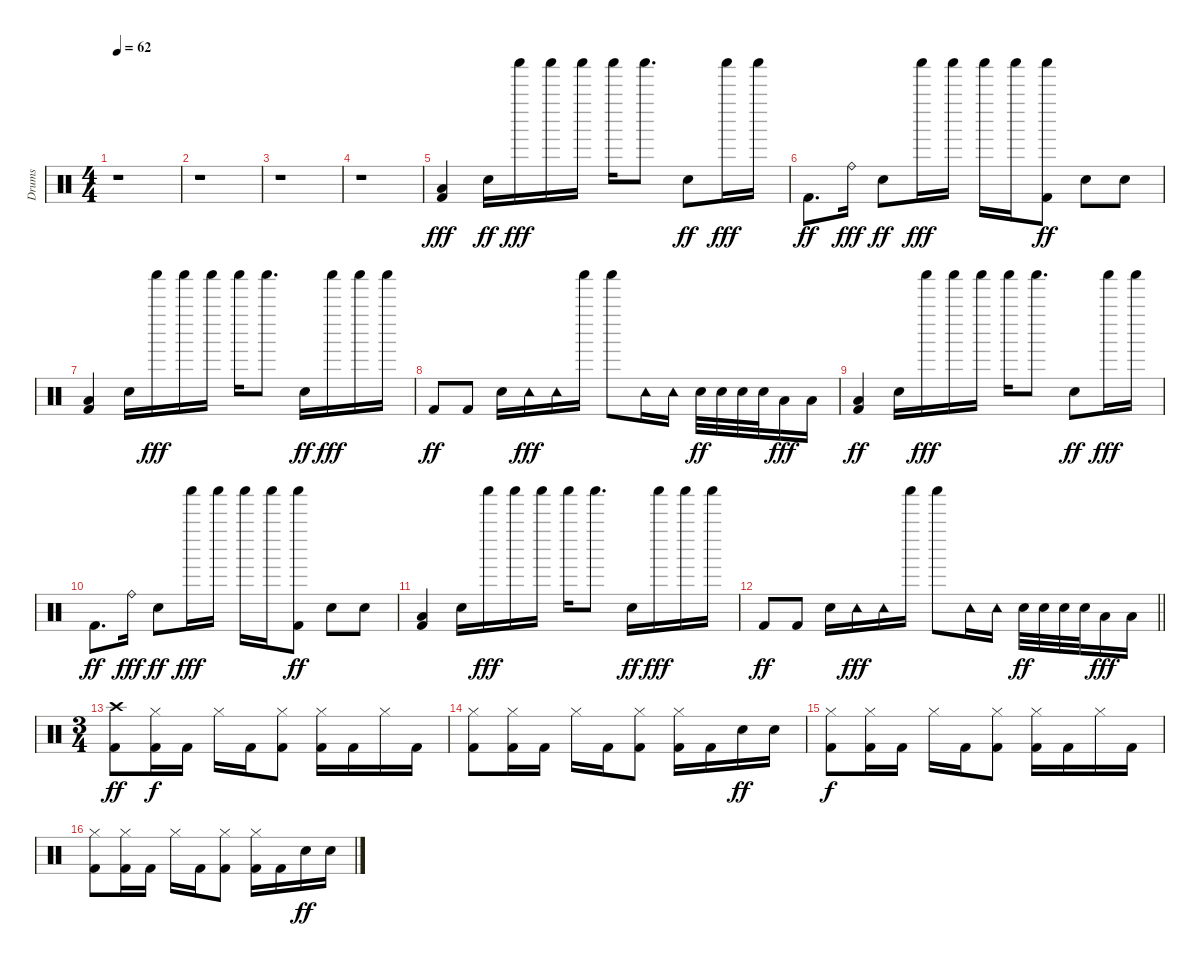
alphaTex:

\track ("Drums" "Drums") {instrument percussion}
\staff {score}
\articulation defaults
\ts (4 4)
\tempo 62
\clef neutral
\ks c
r.1{dy fff} |
r.1 |
r.1 |
r.1 |
("Low Floor Tom (hit)" "Kick (hit) 2").4 "Electric Snare (hit)".16{dy ff} "Shaker (hit)".16{dy fff} "Shaker (hit)".16 "Shaker (hit)".16 "Shaker (hit)".16 "Shaker (hit)".8{d} "Electric Snare (hit)".8{dy ff} "Shaker (hit)".16{dy fff} "Shaker (hit)".16 |
"Kick (hit) 2".8{d dy ff} "Ride (bell)".16{dy fff} "Electric Snare (hit)".8{dy ff} "Shaker (hit)".16{dy fff} "Shaker (hit)".16 "Shaker (hit)".16 "Shaker (hit)".16 ("Shaker (hit)" "Kick (hit) 2").8{dy ff} "Electric Snare (hit)".8 "Electric Snare (hit)".8 |
("Low Floor Tom (hit)" "Kick (hit) 2").4 "Electric Snare (hit)".16 "Shaker (hit)".16{dy fff} "Shaker (hit)".16 "Shaker (hit)".16 "Shaker (hit)".16 "Shaker (hit)".8{d} "Electric Snare (hit)".16{dy ff} "Shaker (hit)".16{dy fff} "Shaker (hit)".16 "Shaker (hit)".16 |
"Kick (hit) 2".8{dy ff} "Kick (hit) 2".8 "Electric Snare (hit)".16 "Tambourine (hit)".16{dy fff} "Tambourine (hit)".16 "Shaker (hit)".16 "Shaker (hit)".8 "Tambourine (hit)".16 "Tambourine (hit)".16 "Electric Snare (hit)".32{dy ff} "Electric Snare (hit)".32 "Electric Snare (hit)".32 "Electric Snare (hit)".32 "Low Floor Tom (hit)".16{dy fff} "Low Floor Tom (hit)".16 |
("Low Floor Tom (hit)" "Kick (hit) 2").4{dy ff} "Electric Snare (hit)".16 "Shaker (hit)".16{dy fff} "Shaker (hit)".16 "Shaker (hit)".16 "Shaker (hit)".16 "Shaker (hit)".8{d} "Electric Snare (hit)".8{dy ff} "Shaker (hit)".16{dy fff} "Shaker (hit)".16 |
"Kick (hit) 2".8{d dy ff} "Ride (bell)".16{dy fff} "Electric Snare (hit)".8{dy ff} "Shaker (hit)".16{dy fff} "Shaker (hit)".16 "Shaker (hit)".16 "Shaker (hit)".16 ("Shaker (hit)" "Kick (hit) 2").8{dy ff} "Electric Snare (hit)".8 "Electric Snare (hit)".8 |
("Low Floor Tom (hit)" "Kick (hit) 2").4 "Electric Snare (hit)".16 "Shaker (hit)".16{dy fff} "Shaker (hit)".16 "Shaker (hit)".16 "Shaker (hit)".16 "Shaker (hit)".8{d} "Electric Snare (hit)".16{dy ff} "Shaker (hit)".16{dy fff} "Shaker (hit)".16 "Shaker (hit)".16 |
\barLineRight lightlight "Kick (hit) 2".8{dy ff} "Kick (hit) 2".8 "Electric Snare (hit)".16 "Tambourine (hit)".16{dy fff} "Tambourine (hit)".16 "Shaker (hit)".16 "Shaker (hit)".8 "Tambourine (hit)".16 "Tambourine (hit)".16 "Electric Snare (hit)".32{dy ff} "Electric Snare (hit)".32 "Electric Snare (hit)".32 "Electric Snare (hit)".32 "Low Floor Tom (hit)".16{dy fff} "Low Floor Tom (hit)".16
|
\ts (3 4)
("Crash high (hit)" "Kick (hit) 2").8{dy ff} ("Hi-Hat (closed)" "Kick (hit) 2").16{dy f} "Kick (hit) 2".16 "Hi-Hat (closed)".16 "Kick (hit) 2".16 ("Hi-Hat (closed)" "Kick (hit) 2").8 ("Hi-Hat (closed)" "Kick (hit) 2").16 "Kick (hit) 2".16 "Hi-Hat (closed)".16 "Kick (hit) 2".16 |
("Hi-Hat (closed)" "Kick (hit) 2").8 ("Hi-Hat (closed)" "Kick (hit) 2").16 "Kick (hit) 2".16 "Hi-Hat (closed)".16 "Kick (hit) 2".16 ("Hi-Hat (closed)" "Kick (hit) 2").8 ("Hi-Hat (closed)" "Kick (hit) 2").16 "Kick (hit) 2".16 "Electric Snare (hit)".16{dy ff} "Electric Snare (hit)".16 |
("Hi-Hat (closed)" "Kick (hit) 2").8{dy f} ("Hi-Hat (closed)" "Kick (hit) 2").16 "Kick (hit) 2".16 "Hi-Hat (closed)".16 "Kick (hit) 2".16 ("Hi-Hat (closed)" "Kick (hit) 2").8 ("Hi-Hat (closed)" "Kick (hit) 2").16 "Kick (hit) 2".16 "Hi-Hat (closed)".16 "Kick (hit) 2".16 |
("Hi-Hat (closed)" "Kick (hit) 2").8 ("Hi-Hat (closed)" "Kick (hit) 2").16 "Kick (hit) 2".16 "Hi-Hat (closed)".16 "Kick (hit) 2".16 ("Hi-Hat (closed)" "Kick (hit) 2").8 ("Hi-Hat (closed)" "Kick (hit) 2").16 "Kick (hit) 2".16 "Electric Snare (hit)".16{dy ff} "Electric Snare (hit)".16
